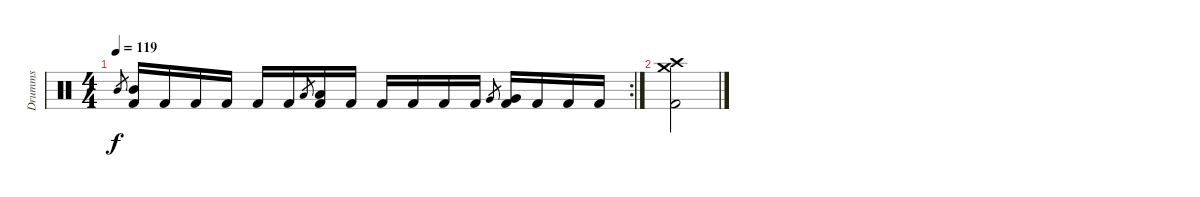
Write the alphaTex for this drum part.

\track ("Drumms" "Drumms") {instrument percussion}
\staff {score}
\articulation defaults
\rc 2
\ts (4 4)
\tempo 119
\clef neutral
\ks c "Mid Tom (hit)".8{gr dy f}
("Mid Tom (hit)" "Kick (hit) 2").16 "Kick (hit) 2".16 "Kick (hit) 2".16 "Kick (hit) 2".16 "Kick (hit) 2".16 "Kick (hit) 2".16 "Low Tom (hit)".8{gr} ("Low Tom (hit)" "Kick (hit) 2").16 "Kick (hit) 2".16 "Kick (hit) 2".16 "Kick (hit) 2".16 "Kick (hit) 2".16 "Kick (hit) 2".16 "Very Low Tom (hit)".8{gr} ("Very Low Tom (hit)" "Kick (hit) 2").16 "Kick (hit) 2".16 "Kick (hit) 2".16 "Kick (hit) 2".16 |
("Crash high (hit)" "Crash medium (hit)" "Kick (hit) 2").2
